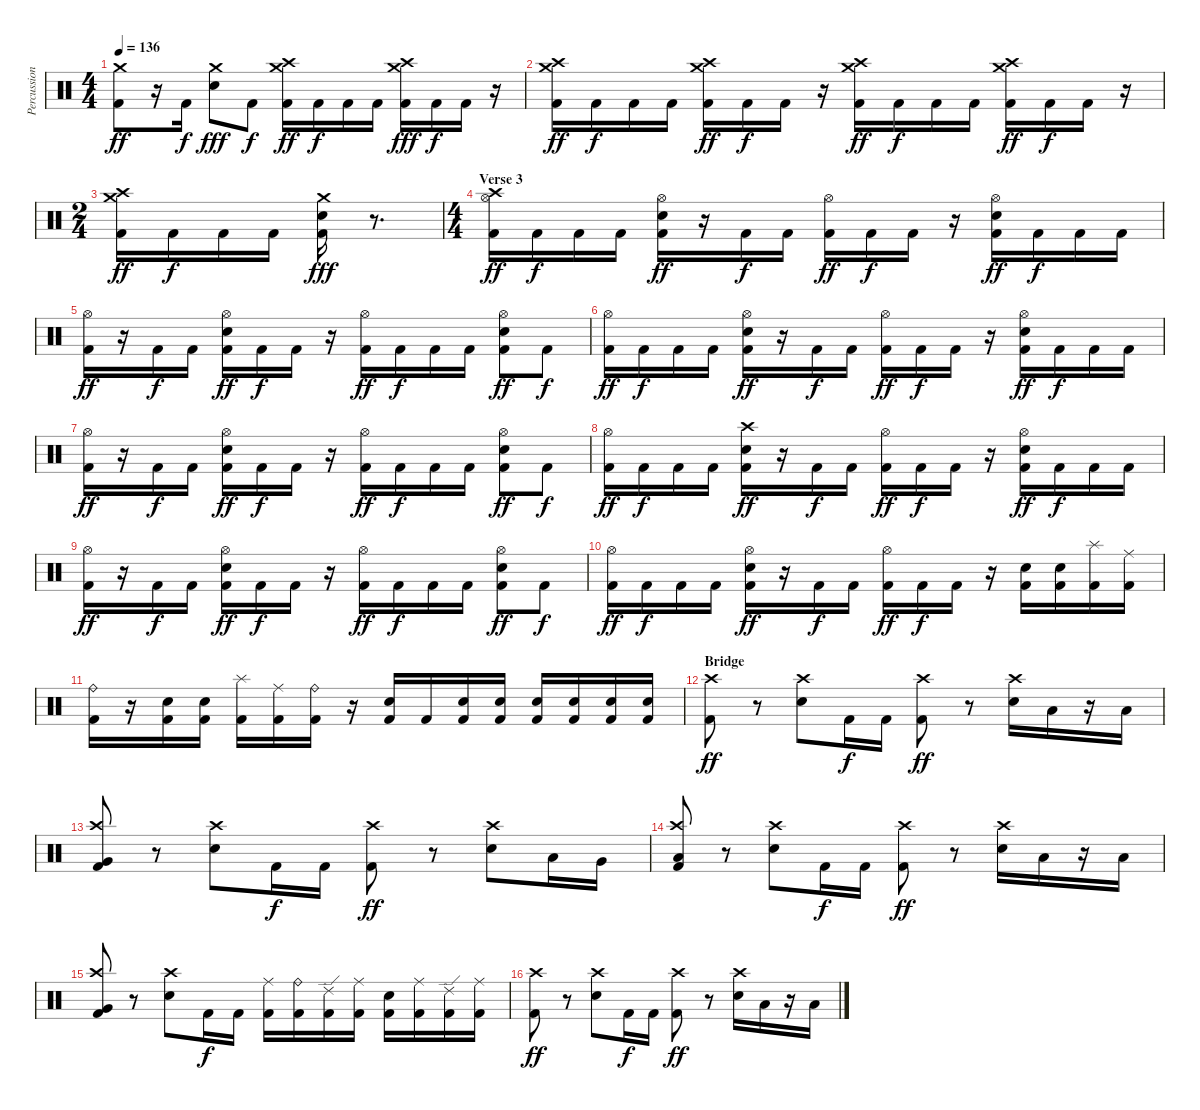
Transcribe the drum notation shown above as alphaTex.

\track ("Percussions" "Percussion") {instrument percussion}
\staff {score}
\articulation defaults
\ts (4 4)
\tempo 136
\clef neutral
\ks c
("Crash medium (hit)" "Kick (hit) 2").8{dy ff} r.16 "Kick (hit) 2".16{dy f} ("Crash medium (hit)" "Electric Snare (hit)").8{dy fff} "Kick (hit) 2".8{dy f} ("Crash high (hit)" "Crash medium (hit)" "Kick (hit) 2").16{dy ff} "Kick (hit) 2".16{dy f} "Kick (hit) 2".16 "Kick (hit) 2".16 ("Crash high (hit)" "Crash medium (hit)" "Kick (hit) 2").16{dy fff} "Kick (hit) 2".16{dy f} "Kick (hit) 2".16 r.16 |
("Crash high (hit)" "Crash medium (hit)" "Kick (hit) 2").16{dy ff} "Kick (hit) 2".16{dy f} "Kick (hit) 2".16 "Kick (hit) 2".16 ("Crash high (hit)" "Crash medium (hit)" "Kick (hit) 2").16{dy ff} "Kick (hit) 2".16{dy f} "Kick (hit) 2".16 r.16 ("Crash high (hit)" "Crash medium (hit)" "Kick (hit) 2").16{dy ff} "Kick (hit) 2".16{dy f} "Kick (hit) 2".16 "Kick (hit) 2".16 ("Crash high (hit)" "Crash medium (hit)" "Kick (hit) 2").16{dy ff} "Kick (hit) 2".16{dy f} "Kick (hit) 2".16 r.16 |
\ts (2 4)
("Crash high (hit)" "Crash medium (hit)" "Kick (hit) 2").16{dy ff} "Kick (hit) 2".16{dy f} "Kick (hit) 2".16 "Kick (hit) 2".16 ("Crash medium (hit)" "Electric Snare (hit)" "Kick (hit) 2").16{dy fff} r.8{d} |
\ts (4 4)
\section ("" "Verse 3")
("Crash high (hit)" "Hi-Hat (open)" "Kick (hit) 2").16{dy ff} "Kick (hit) 2".16{dy f} "Kick (hit) 2".16 "Kick (hit) 2".16 ("Hi-Hat (open)" "Electric Snare (hit)" "Kick (hit) 2").16{dy ff} r.16 "Kick (hit) 2".16{dy f} "Kick (hit) 2".16 ("Hi-Hat (open)" "Kick (hit) 2").16{dy ff} "Kick (hit) 2".16{dy f} "Kick (hit) 2".16 r.16 ("Hi-Hat (open)" "Electric Snare (hit)" "Kick (hit) 2").16{dy ff} "Kick (hit) 2".16{dy f} "Kick (hit) 2".16 "Kick (hit) 2".16 |
("Hi-Hat (open)" "Kick (hit) 2").16{dy ff} r.16 "Kick (hit) 2".16{dy f} "Kick (hit) 2".16 ("Hi-Hat (open)" "Electric Snare (hit)" "Kick (hit) 2").16{dy ff} "Kick (hit) 2".16{dy f} "Kick (hit) 2".16 r.16 ("Hi-Hat (open)" "Kick (hit) 2").16{dy ff} "Kick (hit) 2".16{dy f} "Kick (hit) 2".16 "Kick (hit) 2".16 ("Hi-Hat (open)" "Electric Snare (hit)" "Kick (hit) 2").8{dy ff} "Kick (hit) 2".8{dy f} |
("Hi-Hat (open)" "Kick (hit) 2").16{dy ff} "Kick (hit) 2".16{dy f} "Kick (hit) 2".16 "Kick (hit) 2".16 ("Hi-Hat (open)" "Electric Snare (hit)" "Kick (hit) 2").16{dy ff} r.16 "Kick (hit) 2".16{dy f} "Kick (hit) 2".16 ("Hi-Hat (open)" "Kick (hit) 2").16{dy ff} "Kick (hit) 2".16{dy f} "Kick (hit) 2".16 r.16 ("Hi-Hat (open)" "Electric Snare (hit)" "Kick (hit) 2").16{dy ff} "Kick (hit) 2".16{dy f} "Kick (hit) 2".16 "Kick (hit) 2".16 |
("Hi-Hat (open)" "Kick (hit) 2").16{dy ff} r.16 "Kick (hit) 2".16{dy f} "Kick (hit) 2".16 ("Hi-Hat (open)" "Electric Snare (hit)" "Kick (hit) 2").16{dy ff} "Kick (hit) 2".16{dy f} "Kick (hit) 2".16 r.16 ("Hi-Hat (open)" "Kick (hit) 2").16{dy ff} "Kick (hit) 2".16{dy f} "Kick (hit) 2".16 "Kick (hit) 2".16 ("Hi-Hat (open)" "Electric Snare (hit)" "Kick (hit) 2").8{dy ff} "Kick (hit) 2".8{dy f} |
("Hi-Hat (open)" "Kick (hit) 2").16{dy ff} "Kick (hit) 2".16{dy f} "Kick (hit) 2".16 "Kick (hit) 2".16 ("Crash high (hit)" "Electric Snare (hit)" "Kick (hit) 2").16{dy ff} r.16 "Kick (hit) 2".16{dy f} "Kick (hit) 2".16 ("Hi-Hat (open)" "Kick (hit) 2").16{dy ff} "Kick (hit) 2".16{dy f} "Kick (hit) 2".16 r.16 ("Hi-Hat (open)" "Electric Snare (hit)" "Kick (hit) 2").16{dy ff} "Kick (hit) 2".16{dy f} "Kick (hit) 2".16 "Kick (hit) 2".16 |
("Hi-Hat (open)" "Kick (hit) 2").16{dy ff} r.16 "Kick (hit) 2".16{dy f} "Kick (hit) 2".16 ("Hi-Hat (open)" "Electric Snare (hit)" "Kick (hit) 2").16{dy ff} "Kick (hit) 2".16{dy f} "Kick (hit) 2".16 r.16 ("Hi-Hat (open)" "Kick (hit) 2").16{dy ff} "Kick (hit) 2".16{dy f} "Kick (hit) 2".16 "Kick (hit) 2".16 ("Hi-Hat (open)" "Electric Snare (hit)" "Kick (hit) 2").8{dy ff} "Kick (hit) 2".8{dy f} |
("Hi-Hat (open)" "Kick (hit) 2").16{dy ff} "Kick (hit) 2".16{dy f} "Kick (hit) 2".16 "Kick (hit) 2".16 ("Hi-Hat (open)" "Electric Snare (hit)" "Kick (hit) 2").16{dy ff} r.16 "Kick (hit) 2".16{dy f} "Kick (hit) 2".16 ("Hi-Hat (open)" "Kick (hit) 2").16{dy ff} "Kick (hit) 2".16{dy f} "Kick (hit) 2".16 r.16 ("Electric Snare (hit)" "Kick (hit) 2").16 ("Electric Snare (hit)" "Kick (hit) 2").16 ("Splash (hit)" "Kick (hit) 2").16 ("Ride (middle)" "Kick (hit) 2").16 |
("Ride (bell)" "Kick (hit) 2").16 r.16 ("Electric Snare (hit)" "Kick (hit) 2").16 ("Electric Snare (hit)" "Kick (hit) 2").16 ("Splash (hit)" "Kick (hit) 2").16 ("Ride (middle)" "Kick (hit) 2").16 ("Ride (bell)" "Kick (hit) 2").16 r.16 ("Electric Snare (hit)" "Kick (hit) 2").16 "Kick (hit) 2".16 ("Electric Snare (hit)" "Kick (hit) 2").16 ("Electric Snare (hit)" "Kick (hit) 2").16 ("Electric Snare (hit)" "Kick (hit) 2").16 ("Electric Snare (hit)" "Kick (hit) 2").16 ("Electric Snare (hit)" "Kick (hit) 2").16 ("Electric Snare (hit)" "Kick (hit) 2").16 |
\section ("" "Bridge")
("Crash high (hit)" "Kick (hit) 2").8{dy ff} r.8 ("Crash high (hit)" "Electric Snare (hit)").8 "Kick (hit) 2".16{dy f} "Kick (hit) 2".16 ("Crash high (hit)" "Kick (hit) 2").8{dy ff} r.8 ("Crash high (hit)" "Electric Snare (hit)").16 "Low Tom (hit)".16 r.16 "Low Tom (hit)".16 |
("Crash high (hit)" "Very Low Tom (hit)" "Kick (hit) 2").8 r.8 ("Crash high (hit)" "Electric Snare (hit)").8 "Kick (hit) 2".16{dy f} "Kick (hit) 2".16 ("Crash high (hit)" "Kick (hit) 2").8{dy ff} r.8 ("Crash high (hit)" "Electric Snare (hit)").8 "Low Tom (hit)".16 "Very Low Tom (hit)".16 |
("Crash high (hit)" "Low Floor Tom (hit)" "Kick (hit) 2").8 r.8 ("Crash high (hit)" "Electric Snare (hit)").8 "Kick (hit) 2".16{dy f} "Kick (hit) 2".16 ("Crash high (hit)" "Kick (hit) 2").8{dy ff} r.8 ("Crash high (hit)" "Electric Snare (hit)").16 "Low Tom (hit)".16 r.16 "Low Tom (hit)".16 |
("Crash high (hit)" "Very Low Tom (hit)" "Kick (hit) 2").8 r.8 ("Crash high (hit)" "Electric Snare (hit)").8 "Kick (hit) 2".16{dy f} "Kick (hit) 2".16 ("Ride (middle)" "Kick (hit) 2").16 ("Ride (bell)" "Kick (hit) 2").16 ("Ride (edge) 2" "Kick (hit) 2").16 ("Ride (middle)" "Kick (hit) 2").16 ("Electric Snare (hit)" "Kick (hit) 2").16 ("Ride (middle)" "Kick (hit) 2").16 ("Ride (edge) 2" "Kick (hit) 2").16 ("Ride (middle)" "Kick (hit) 2").16 |
("Crash high (hit)" "Kick (hit) 2").8{dy ff} r.8 ("Crash high (hit)" "Electric Snare (hit)").8 "Kick (hit) 2".16{dy f} "Kick (hit) 2".16 ("Crash high (hit)" "Kick (hit) 2").8{dy ff} r.8 ("Crash high (hit)" "Electric Snare (hit)").16 "Low Tom (hit)".16 r.16 "Low Tom (hit)".16
